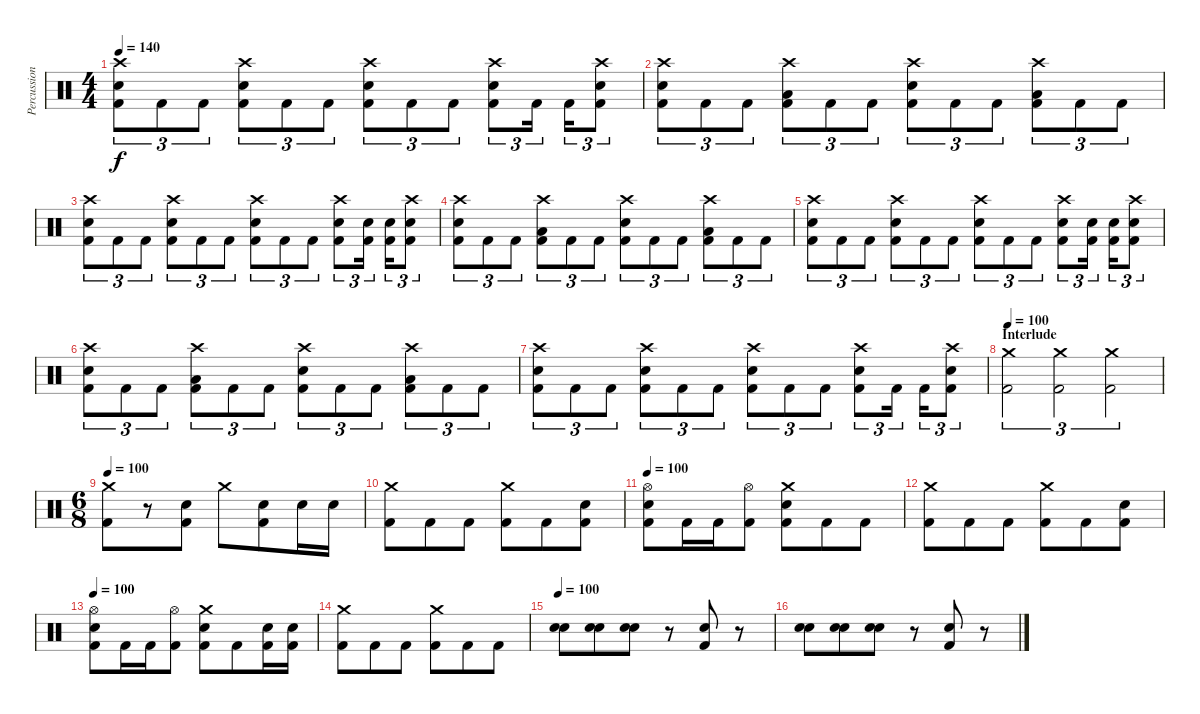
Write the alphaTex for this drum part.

\track ("Percussion" "Percussion") {instrument percussion}
\staff {score}
\articulation defaults
\ts (4 4)
\tempo 140
\clef neutral
\ks c
("Crash high (hit)" "Snare (hit) 2" "Kick (hit) 2").8{tu (3 2) dy f} "Kick (hit) 2".8{tu (3 2)} "Kick (hit) 2".8{tu (3 2)} ("Crash high (hit)" "Snare (hit) 2" "Kick (hit) 2").8{tu (3 2)} "Kick (hit) 2".8{tu (3 2)} "Kick (hit) 2".8{tu (3 2)} ("Crash high (hit)" "Snare (hit) 2" "Kick (hit) 2").8{tu (3 2)} "Kick (hit) 2".8{tu (3 2)} "Kick (hit) 2".8{tu (3 2)} ("Crash high (hit)" "Snare (hit) 2" "Kick (hit) 2").8{tu (3 2)} "Kick (hit) 2".16{tu (3 2)} "Kick (hit) 2".16{tu (3 2)} ("Crash high (hit)" "Snare (hit) 2" "Kick (hit) 2").8{tu (3 2)} |
("Crash high (hit)" "Snare (hit) 2" "Kick (hit) 2").8{tu (3 2)} "Kick (hit) 2".8{tu (3 2)} "Kick (hit) 2".8{tu (3 2)} ("Crash high (hit)" "Low Floor Tom (hit)" "Kick (hit) 2").8{tu (3 2)} "Kick (hit) 2".8{tu (3 2)} "Kick (hit) 2".8{tu (3 2)} ("Crash high (hit)" "Snare (hit) 2" "Kick (hit) 2").8{tu (3 2)} "Kick (hit) 2".8{tu (3 2)} "Kick (hit) 2".8{tu (3 2)} ("Crash high (hit)" "Low Floor Tom (hit)" "Kick (hit) 2").8{tu (3 2)} "Kick (hit) 2".8{tu (3 2)} "Kick (hit) 2".8{tu (3 2)} |
("Crash high (hit)" "Snare (hit) 2" "Kick (hit) 2").8{tu (3 2)} "Kick (hit) 2".8{tu (3 2)} "Kick (hit) 2".8{tu (3 2)} ("Crash high (hit)" "Snare (hit) 2" "Kick (hit) 2").8{tu (3 2)} "Kick (hit) 2".8{tu (3 2)} "Kick (hit) 2".8{tu (3 2)} ("Crash high (hit)" "Snare (hit) 2" "Kick (hit) 2").8{tu (3 2)} "Kick (hit) 2".8{tu (3 2)} "Kick (hit) 2".8{tu (3 2)} ("Crash high (hit)" "Snare (hit) 2" "Kick (hit) 2").8{tu (3 2)} ("Snare (hit) 2" "Kick (hit) 2").16{tu (3 2)} ("Snare (hit) 2" "Kick (hit) 2").16{tu (3 2)} ("Crash high (hit)" "Snare (hit) 2" "Kick (hit) 2").8{tu (3 2)} |
("Crash high (hit)" "Snare (hit) 2" "Kick (hit) 2").8{tu (3 2)} "Kick (hit) 2".8{tu (3 2)} "Kick (hit) 2".8{tu (3 2)} ("Crash high (hit)" "Low Floor Tom (hit)" "Kick (hit) 2").8{tu (3 2)} "Kick (hit) 2".8{tu (3 2)} "Kick (hit) 2".8{tu (3 2)} ("Crash high (hit)" "Snare (hit) 2" "Kick (hit) 2").8{tu (3 2)} "Kick (hit) 2".8{tu (3 2)} "Kick (hit) 2".8{tu (3 2)} ("Crash high (hit)" "Low Floor Tom (hit)" "Kick (hit) 2").8{tu (3 2)} "Kick (hit) 2".8{tu (3 2)} "Kick (hit) 2".8{tu (3 2)} |
("Crash high (hit)" "Snare (hit) 2" "Kick (hit) 2").8{tu (3 2)} "Kick (hit) 2".8{tu (3 2)} "Kick (hit) 2".8{tu (3 2)} ("Crash high (hit)" "Snare (hit) 2" "Kick (hit) 2").8{tu (3 2)} "Kick (hit) 2".8{tu (3 2)} "Kick (hit) 2".8{tu (3 2)} ("Crash high (hit)" "Snare (hit) 2" "Kick (hit) 2").8{tu (3 2)} "Kick (hit) 2".8{tu (3 2)} "Kick (hit) 2".8{tu (3 2)} ("Crash high (hit)" "Snare (hit) 2" "Kick (hit) 2").8{tu (3 2)} ("Snare (hit) 2" "Kick (hit) 2").16{tu (3 2)} ("Snare (hit) 2" "Kick (hit) 2").16{tu (3 2)} ("Crash high (hit)" "Snare (hit) 2" "Kick (hit) 2").8{tu (3 2)} |
("Crash high (hit)" "Snare (hit) 2" "Kick (hit) 2").8{tu (3 2)} "Kick (hit) 2".8{tu (3 2)} "Kick (hit) 2".8{tu (3 2)} ("Crash high (hit)" "Low Floor Tom (hit)" "Kick (hit) 2").8{tu (3 2)} "Kick (hit) 2".8{tu (3 2)} "Kick (hit) 2".8{tu (3 2)} ("Crash high (hit)" "Snare (hit) 2" "Kick (hit) 2").8{tu (3 2)} "Kick (hit) 2".8{tu (3 2)} "Kick (hit) 2".8{tu (3 2)} ("Crash high (hit)" "Low Floor Tom (hit)" "Kick (hit) 2").8{tu (3 2)} "Kick (hit) 2".8{tu (3 2)} "Kick (hit) 2".8{tu (3 2)} |
("Crash high (hit)" "Snare (hit) 2" "Kick (hit) 2").8{tu (3 2)} "Kick (hit) 2".8{tu (3 2)} "Kick (hit) 2".8{tu (3 2)} ("Crash high (hit)" "Snare (hit) 2" "Kick (hit) 2").8{tu (3 2)} "Kick (hit) 2".8{tu (3 2)} "Kick (hit) 2".8{tu (3 2)} ("Crash high (hit)" "Snare (hit) 2" "Kick (hit) 2").8{tu (3 2)} "Kick (hit) 2".8{tu (3 2)} "Kick (hit) 2".8{tu (3 2)} ("Crash high (hit)" "Snare (hit) 2" "Kick (hit) 2").8{tu (3 2)} "Kick (hit) 2".16{tu (3 2)} "Kick (hit) 2".16{tu (3 2)} ("Crash high (hit)" "Snare (hit) 2" "Kick (hit) 2").8{tu (3 2)} |
\section ("" "Interlude")
\tempo 140
\tempo 100
("Crash medium (hit)" "Kick (hit) 2").2{tu (3 2)} ("Crash medium (hit)" "Kick (hit) 2").2{tu (3 2)} ("Crash medium (hit)" "Kick (hit) 2").2{tu (3 2)} |
\ts (6 8)
\tempo 100
("Crash medium (hit)" "Kick (hit) 2").8 r.8 ("Snare (hit) 2" "Kick (hit) 2").8 "Crash medium (hit)".8 ("Snare (hit) 2" "Kick (hit) 2").8 "Snare (hit) 2".16 "Snare (hit) 2".16 |
("Crash medium (hit)" "Kick (hit) 2").8 "Kick (hit) 2".8 "Kick (hit) 2".8 ("Crash medium (hit)" "Kick (hit) 2").8 "Kick (hit) 2".8 ("Snare (hit) 2" "Kick (hit) 2").8 |
\tempo 100
("Hi-Hat (open)" "Snare (hit) 2" "Kick (hit) 2").8 "Kick (hit) 2".16 "Kick (hit) 2".16 ("Hi-Hat (open)" "Kick (hit) 2").8 ("Crash medium (hit)" "Snare (hit) 2" "Kick (hit) 2").8 "Kick (hit) 2".8 "Kick (hit) 2".8 |
("Crash medium (hit)" "Kick (hit) 2").8 "Kick (hit) 2".8 "Kick (hit) 2".8 ("Crash medium (hit)" "Kick (hit) 2").8 "Kick (hit) 2".8 ("Snare (hit) 2" "Kick (hit) 2").8 |
\tempo 100
("Hi-Hat (open)" "Snare (hit) 2" "Kick (hit) 2").8 "Kick (hit) 2".16 "Kick (hit) 2".16 ("Hi-Hat (open)" "Kick (hit) 2").8 ("Crash medium (hit)" "Snare (hit) 2" "Kick (hit) 2").8 "Kick (hit) 2".8 ("Snare (hit) 2" "Kick (hit) 2").16 ("Snare (hit) 2" "Kick (hit) 2").16 |
("Crash medium (hit)" "Kick (hit) 2").8 "Kick (hit) 2".8 "Kick (hit) 2".8 ("Crash medium (hit)" "Kick (hit) 2").8 "Kick (hit) 2".8 "Kick (hit) 2".8 |
\tempo 100
("Snare (hit) 2" "Snare (hit) 2").8 ("Snare (hit) 2" "Snare (hit) 2").8 ("Snare (hit) 2" "Snare (hit) 2").8 r.8 ("Snare (hit) 2" "Kick (hit) 2").8 r.8 |
("Snare (hit) 2" "Snare (hit) 2").8 ("Snare (hit) 2" "Snare (hit) 2").8 ("Snare (hit) 2" "Snare (hit) 2").8 r.8 ("Snare (hit) 2" "Kick (hit) 2").8 r.8
